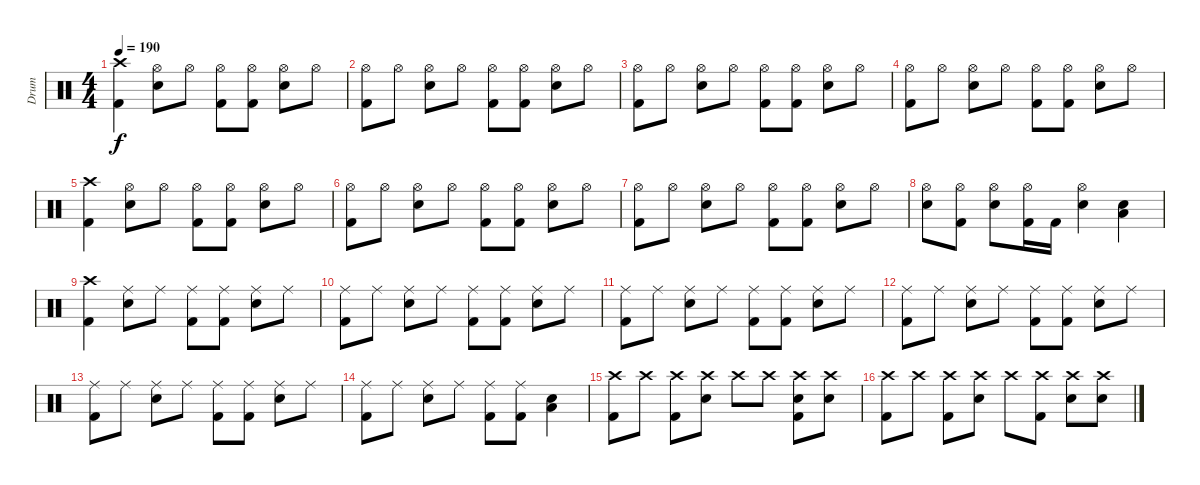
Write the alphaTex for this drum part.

\track ("Drum" "Drum") {instrument percussion}
\staff {score}
\articulation defaults
\ts (4 4)
\tempo 190
\clef neutral
\ks c
("Crash high (hit)" "Kick (hit) 2").4{dy f} ("Hi-Hat (open)" "Electric Snare (hit)").8 "Hi-Hat (open)".8 ("Hi-Hat (open)" "Kick (hit) 2").8 ("Hi-Hat (open)" "Kick (hit) 2").8 ("Hi-Hat (open)" "Electric Snare (hit)").8 "Hi-Hat (open)".8 |
("Hi-Hat (open)" "Kick (hit) 2").8 "Hi-Hat (open)".8 ("Hi-Hat (open)" "Electric Snare (hit)").8 "Hi-Hat (open)".8 ("Hi-Hat (open)" "Kick (hit) 2").8 ("Hi-Hat (open)" "Kick (hit) 2").8 ("Hi-Hat (open)" "Electric Snare (hit)").8 "Hi-Hat (open)".8 |
("Hi-Hat (open)" "Kick (hit) 2").8 "Hi-Hat (open)".8 ("Hi-Hat (open)" "Electric Snare (hit)").8 "Hi-Hat (open)".8 ("Hi-Hat (open)" "Kick (hit) 2").8 ("Hi-Hat (open)" "Kick (hit) 2").8 ("Hi-Hat (open)" "Electric Snare (hit)").8 "Hi-Hat (open)".8 |
("Hi-Hat (open)" "Kick (hit) 2").8 "Hi-Hat (open)".8 ("Hi-Hat (open)" "Electric Snare (hit)").8 "Hi-Hat (open)".8 ("Hi-Hat (open)" "Kick (hit) 2").8 ("Hi-Hat (open)" "Kick (hit) 2").8 ("Hi-Hat (open)" "Electric Snare (hit)").8 "Hi-Hat (open)".8 |
("Crash high (hit)" "Kick (hit) 2").4 ("Hi-Hat (open)" "Electric Snare (hit)").8 "Hi-Hat (open)".8 ("Hi-Hat (open)" "Kick (hit) 2").8 ("Hi-Hat (open)" "Kick (hit) 2").8 ("Hi-Hat (open)" "Electric Snare (hit)").8 "Hi-Hat (open)".8 |
("Hi-Hat (open)" "Kick (hit) 2").8 "Hi-Hat (open)".8 ("Hi-Hat (open)" "Electric Snare (hit)").8 "Hi-Hat (open)".8 ("Hi-Hat (open)" "Kick (hit) 2").8 ("Hi-Hat (open)" "Kick (hit) 2").8 ("Hi-Hat (open)" "Electric Snare (hit)").8 "Hi-Hat (open)".8 |
("Hi-Hat (open)" "Kick (hit) 2").8 "Hi-Hat (open)".8 ("Hi-Hat (open)" "Electric Snare (hit)").8 "Hi-Hat (open)".8 ("Hi-Hat (open)" "Kick (hit) 2").8 ("Hi-Hat (open)" "Kick (hit) 2").8 ("Hi-Hat (open)" "Electric Snare (hit)").8 "Hi-Hat (open)".8 |
("Hi-Hat (open)" "Electric Snare (hit)").8 ("Hi-Hat (open)" "Kick (hit) 2").8 ("Hi-Hat (open)" "Electric Snare (hit)").8 ("Hi-Hat (open)" "Kick (hit) 2").16 "Kick (hit) 2".16 ("Hi-Hat (open)" "Electric Snare (hit)").4 ("Electric Snare (hit)" "Low Floor Tom (hit)").4 |
("Crash high (hit)" "Kick (hit) 2").4 ("Ride (middle)" "Electric Snare (hit)").8 "Ride (middle)".8 ("Ride (middle)" "Kick (hit) 2").8 ("Ride (middle)" "Kick (hit) 2").8 ("Ride (middle)" "Electric Snare (hit)").8 "Ride (middle)".8 |
("Ride (middle)" "Kick (hit) 2").8 "Ride (middle)".8 ("Ride (middle)" "Electric Snare (hit)").8 "Ride (middle)".8 ("Ride (middle)" "Kick (hit) 2").8 ("Ride (middle)" "Kick (hit) 2").8 ("Ride (middle)" "Electric Snare (hit)").8 "Ride (middle)".8 |
("Ride (middle)" "Kick (hit) 2").8 "Ride (middle)".8 ("Ride (middle)" "Electric Snare (hit)").8 "Ride (middle)".8 ("Ride (middle)" "Kick (hit) 2").8 ("Ride (middle)" "Kick (hit) 2").8 ("Ride (middle)" "Electric Snare (hit)").8 "Ride (middle)".8 |
("Ride (middle)" "Kick (hit) 2").8 "Ride (middle)".8 ("Ride (middle)" "Electric Snare (hit)").8 "Ride (middle)".8 ("Ride (middle)" "Kick (hit) 2").8 ("Ride (middle)" "Kick (hit) 2").8 ("Ride (middle)" "Electric Snare (hit)").8 "Ride (middle)".8 |
("Ride (middle)" "Kick (hit) 2").8 "Ride (middle)".8 ("Ride (middle)" "Electric Snare (hit)").8 "Ride (middle)".8 ("Ride (middle)" "Kick (hit) 2").8 ("Ride (middle)" "Kick (hit) 2").8 ("Ride (middle)" "Electric Snare (hit)").8 "Ride (middle)".8 |
("Ride (middle)" "Kick (hit) 2").8 "Ride (middle)".8 ("Ride (middle)" "Electric Snare (hit)").8 "Ride (middle)".8 ("Ride (middle)" "Kick (hit) 2").8 ("Ride (middle)" "Kick (hit) 2").8 ("Electric Snare (hit)" "Low Floor Tom (hit)").4 |
("Crash high (hit)" "Kick (hit) 2").8 "Crash high (hit)".8 ("Crash high (hit)" "Kick (hit) 2").8 ("Crash high (hit)" "Electric Snare (hit)").8 "Crash high (hit)".8 "Crash high (hit)".8 ("Crash high (hit)" "Electric Snare (hit)" "Kick (hit) 2").8 ("Crash high (hit)" "Electric Snare (hit)").8 |
("Crash high (hit)" "Kick (hit) 2").8 "Crash high (hit)".8 ("Crash high (hit)" "Kick (hit) 2").8 ("Crash high (hit)" "Electric Snare (hit)").8 "Crash high (hit)".8 ("Crash high (hit)" "Kick (hit) 2").8 ("Crash high (hit)" "Electric Snare (hit)").8 ("Crash high (hit)" "Electric Snare (hit)").8
